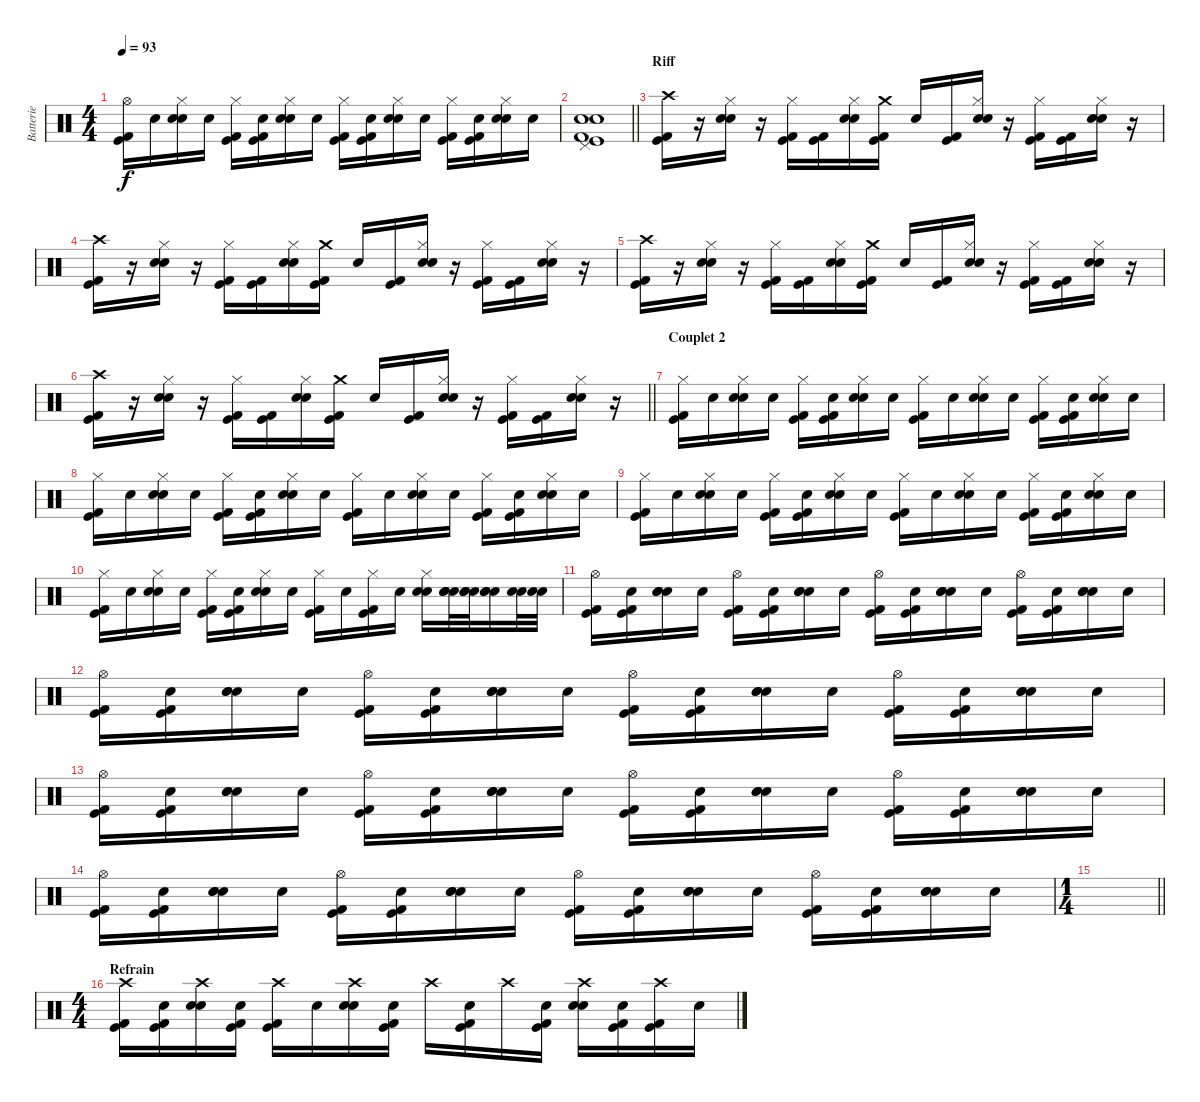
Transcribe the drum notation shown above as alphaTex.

\track ("Batterie" "Batterie") {instrument percussion}
\staff {score}
\articulation defaults
\ts (4 4)
\tempo 93
\clef neutral
\ks c
("Hi-Hat (open)" "Kick (hit)" "Kick (hit) 2").16{dy f} "Snare (hit)".16 ("Hi-Hat (closed)" "Electric Snare (hit)" "Snare (hit) 2").16 "Snare (hit)".16 ("Hi-Hat (closed)" "Kick (hit)" "Kick (hit) 2").16 ("Snare (hit)" "Kick (hit)" "Kick (hit) 2").16 ("Hi-Hat (closed)" "Electric Snare (hit)" "Snare (hit) 2").16 "Snare (hit)".16 ("Hi-Hat (closed)" "Kick (hit)" "Kick (hit) 2").16 ("Snare (hit)" "Kick (hit)" "Kick (hit) 2").16 ("Hi-Hat (closed)" "Electric Snare (hit)" "Snare (hit) 2").16 "Snare (hit)".16 ("Hi-Hat (closed)" "Kick (hit)" "Kick (hit) 2").16 ("Snare (hit)" "Kick (hit)" "Kick (hit) 2").16 ("Hi-Hat (closed)" "Electric Snare (hit)" "Snare (hit) 2").16 "Snare (hit)".16 |
\barLineRight lightlight
("Pedal Hi-Hat (hit)" "Kick (hit)" "Kick (hit) 2" "Electric Snare (hit)" "Snare (hit) 2").1 |
\section ("" "Riff")
("Crash high (hit)" "Kick (hit)" "Kick (hit) 2").16 r.16 ("Hi-Hat (closed)" "Electric Snare (hit)" "Snare (hit) 2").16 r.16 ("Hi-Hat (closed)" "Kick (hit)" "Kick (hit) 2").16 ("Kick (hit)" "Kick (hit) 2").16 ("Hi-Hat (closed)" "Electric Snare (hit)" "Snare (hit) 2").16 ("Crash medium (hit)" "Kick (hit)" "Kick (hit) 2").16 "Snare (hit)".16 ("Kick (hit)" "Kick (hit) 2").16 ("Hi-Hat (closed)" "Electric Snare (hit)" "Snare (hit) 2").16 r.16 ("Hi-Hat (closed)" "Kick (hit)" "Kick (hit) 2").16 ("Kick (hit)" "Kick (hit) 2").16 ("Hi-Hat (closed)" "Electric Snare (hit)" "Snare (hit) 2").16 r.16 |
("Crash high (hit)" "Kick (hit)" "Kick (hit) 2").16 r.16 ("Hi-Hat (closed)" "Electric Snare (hit)" "Snare (hit) 2").16 r.16 ("Hi-Hat (closed)" "Kick (hit)" "Kick (hit) 2").16 ("Kick (hit)" "Kick (hit) 2").16 ("Hi-Hat (closed)" "Electric Snare (hit)" "Snare (hit) 2").16 ("Crash medium (hit)" "Kick (hit)" "Kick (hit) 2").16 "Snare (hit)".16 ("Kick (hit)" "Kick (hit) 2").16 ("Hi-Hat (closed)" "Electric Snare (hit)" "Snare (hit) 2").16 r.16 ("Hi-Hat (closed)" "Kick (hit)" "Kick (hit) 2").16 ("Kick (hit)" "Kick (hit) 2").16 ("Hi-Hat (closed)" "Electric Snare (hit)" "Snare (hit) 2").16 r.16 |
("Crash high (hit)" "Kick (hit)" "Kick (hit) 2").16 r.16 ("Hi-Hat (closed)" "Electric Snare (hit)" "Snare (hit) 2").16 r.16 ("Hi-Hat (closed)" "Kick (hit)" "Kick (hit) 2").16 ("Kick (hit)" "Kick (hit) 2").16 ("Hi-Hat (closed)" "Electric Snare (hit)" "Snare (hit) 2").16 ("Crash medium (hit)" "Kick (hit)" "Kick (hit) 2").16 "Snare (hit)".16 ("Kick (hit)" "Kick (hit) 2").16 ("Hi-Hat (closed)" "Electric Snare (hit)" "Snare (hit) 2").16 r.16 ("Hi-Hat (closed)" "Kick (hit)" "Kick (hit) 2").16 ("Kick (hit)" "Kick (hit) 2").16 ("Hi-Hat (closed)" "Electric Snare (hit)" "Snare (hit) 2").16 r.16 |
\barLineRight lightlight
("Crash high (hit)" "Kick (hit)" "Kick (hit) 2").16 r.16 ("Hi-Hat (closed)" "Electric Snare (hit)" "Snare (hit) 2").16 r.16 ("Hi-Hat (closed)" "Kick (hit)" "Kick (hit) 2").16 ("Kick (hit)" "Kick (hit) 2").16 ("Hi-Hat (closed)" "Electric Snare (hit)" "Snare (hit) 2").16 ("Crash medium (hit)" "Kick (hit)" "Kick (hit) 2").16 "Snare (hit)".16 ("Kick (hit)" "Kick (hit) 2").16 ("Hi-Hat (closed)" "Electric Snare (hit)" "Snare (hit) 2").16 r.16 ("Hi-Hat (closed)" "Kick (hit)" "Kick (hit) 2").16 ("Kick (hit)" "Kick (hit) 2").16 ("Hi-Hat (closed)" "Electric Snare (hit)" "Snare (hit) 2").16 r.16 |
\section ("" "Couplet 2")
("Hi-Hat (closed)" "Kick (hit)" "Kick (hit) 2").16 "Snare (hit)".16 ("Hi-Hat (closed)" "Electric Snare (hit)" "Snare (hit) 2").16 "Snare (hit)".16 ("Hi-Hat (closed)" "Kick (hit)" "Kick (hit) 2").16 ("Snare (hit)" "Kick (hit)" "Kick (hit) 2").16 ("Hi-Hat (closed)" "Electric Snare (hit)" "Snare (hit) 2").16 "Snare (hit)".16 ("Hi-Hat (closed)" "Kick (hit)" "Kick (hit) 2").16 "Snare (hit)".16 ("Hi-Hat (closed)" "Electric Snare (hit)" "Snare (hit) 2").16 "Snare (hit)".16 ("Hi-Hat (closed)" "Kick (hit)" "Kick (hit) 2").16 ("Snare (hit)" "Kick (hit)" "Kick (hit) 2").16 ("Hi-Hat (closed)" "Electric Snare (hit)" "Snare (hit) 2").16 "Snare (hit)".16 |
("Hi-Hat (closed)" "Kick (hit)" "Kick (hit) 2").16 "Snare (hit)".16 ("Hi-Hat (closed)" "Electric Snare (hit)" "Snare (hit) 2").16 "Snare (hit)".16 ("Hi-Hat (closed)" "Kick (hit)" "Kick (hit) 2").16 ("Snare (hit)" "Kick (hit)" "Kick (hit) 2").16 ("Hi-Hat (closed)" "Electric Snare (hit)" "Snare (hit) 2").16 "Snare (hit)".16 ("Hi-Hat (closed)" "Kick (hit)" "Kick (hit) 2").16 "Snare (hit)".16 ("Hi-Hat (closed)" "Electric Snare (hit)" "Snare (hit) 2").16 "Snare (hit)".16 ("Hi-Hat (closed)" "Kick (hit)" "Kick (hit) 2").16 ("Snare (hit)" "Kick (hit)" "Kick (hit) 2").16 ("Hi-Hat (closed)" "Electric Snare (hit)" "Snare (hit) 2").16 "Snare (hit)".16 |
("Hi-Hat (closed)" "Kick (hit)" "Kick (hit) 2").16 "Snare (hit)".16 ("Hi-Hat (closed)" "Electric Snare (hit)" "Snare (hit) 2").16 "Snare (hit)".16 ("Hi-Hat (closed)" "Kick (hit)" "Kick (hit) 2").16 ("Snare (hit)" "Kick (hit)" "Kick (hit) 2").16 ("Hi-Hat (closed)" "Electric Snare (hit)" "Snare (hit) 2").16 "Snare (hit)".16 ("Hi-Hat (closed)" "Kick (hit)" "Kick (hit) 2").16 "Snare (hit)".16 ("Hi-Hat (closed)" "Electric Snare (hit)" "Snare (hit) 2").16 "Snare (hit)".16 ("Hi-Hat (closed)" "Kick (hit)" "Kick (hit) 2").16 ("Snare (hit)" "Kick (hit)" "Kick (hit) 2").16 ("Hi-Hat (closed)" "Electric Snare (hit)" "Snare (hit) 2").16 "Snare (hit)".16 |
("Hi-Hat (closed)" "Kick (hit)" "Kick (hit) 2").16 "Snare (hit)".16 ("Hi-Hat (closed)" "Electric Snare (hit)" "Snare (hit) 2").16 "Snare (hit)".16 ("Hi-Hat (closed)" "Kick (hit)" "Kick (hit) 2").16 ("Snare (hit)" "Kick (hit)" "Kick (hit) 2").16 ("Hi-Hat (closed)" "Electric Snare (hit)" "Snare (hit) 2").16 "Snare (hit)".16 ("Hi-Hat (closed)" "Kick (hit)" "Kick (hit) 2").16 "Snare (hit)".16 ("Hi-Hat (closed)" "Kick (hit)" "Kick (hit) 2").16 "Snare (hit)".16 ("Hi-Hat (closed)" "Electric Snare (hit)" "Snare (hit) 2").16 ("Snare (hit)" "Electric Snare (hit)" "Snare (hit) 2").32 ("Snare (hit)" "Electric Snare (hit)" "Snare (hit) 2").32 ("Snare (hit)" "Electric Snare (hit)" "Snare (hit) 2").16 ("Electric Snare (hit)" "Snare (hit) 2").32 ("Electric Snare (hit)" "Snare (hit) 2").32 |
("Hi-Hat (open)" "Kick (hit)" "Kick (hit) 2").16 ("Snare (hit)" "Kick (hit)" "Kick (hit) 2").16 ("Snare (hit)" "Electric Snare (hit)" "Snare (hit) 2").16 "Snare (hit)".16 ("Hi-Hat (open)" "Kick (hit)" "Kick (hit) 2").16 ("Snare (hit)" "Kick (hit)" "Kick (hit) 2").16 ("Snare (hit)" "Electric Snare (hit)" "Snare (hit) 2").16 "Snare (hit)".16 ("Hi-Hat (open)" "Kick (hit)" "Kick (hit) 2").16 ("Snare (hit)" "Kick (hit)" "Kick (hit) 2").16 ("Snare (hit)" "Electric Snare (hit)" "Snare (hit) 2").16 "Snare (hit)".16 ("Hi-Hat (open)" "Kick (hit)" "Kick (hit) 2").16 ("Snare (hit)" "Kick (hit)" "Kick (hit) 2").16 ("Snare (hit)" "Electric Snare (hit)" "Snare (hit) 2").16 "Snare (hit)".16 |
("Hi-Hat (open)" "Kick (hit)" "Kick (hit) 2").16 ("Snare (hit)" "Kick (hit)" "Kick (hit) 2").16 ("Snare (hit)" "Electric Snare (hit)" "Snare (hit) 2").16 "Snare (hit)".16 ("Hi-Hat (open)" "Kick (hit)" "Kick (hit) 2").16 ("Snare (hit)" "Kick (hit)" "Kick (hit) 2").16 ("Snare (hit)" "Electric Snare (hit)" "Snare (hit) 2").16 "Snare (hit)".16 ("Hi-Hat (open)" "Kick (hit)" "Kick (hit) 2").16 ("Snare (hit)" "Kick (hit)" "Kick (hit) 2").16 ("Snare (hit)" "Electric Snare (hit)" "Snare (hit) 2").16 "Snare (hit)".16 ("Hi-Hat (open)" "Kick (hit)" "Kick (hit) 2").16 ("Snare (hit)" "Kick (hit)" "Kick (hit) 2").16 ("Snare (hit)" "Electric Snare (hit)" "Snare (hit) 2").16 "Snare (hit)".16 |
("Hi-Hat (open)" "Kick (hit)" "Kick (hit) 2").16 ("Snare (hit)" "Kick (hit)" "Kick (hit) 2").16 ("Snare (hit)" "Electric Snare (hit)" "Snare (hit) 2").16 "Snare (hit)".16 ("Hi-Hat (open)" "Kick (hit)" "Kick (hit) 2").16 ("Snare (hit)" "Kick (hit)" "Kick (hit) 2").16 ("Snare (hit)" "Electric Snare (hit)" "Snare (hit) 2").16 "Snare (hit)".16 ("Hi-Hat (open)" "Kick (hit)" "Kick (hit) 2").16 ("Snare (hit)" "Kick (hit)" "Kick (hit) 2").16 ("Snare (hit)" "Electric Snare (hit)" "Snare (hit) 2").16 "Snare (hit)".16 ("Hi-Hat (open)" "Kick (hit)" "Kick (hit) 2").16 ("Snare (hit)" "Kick (hit)" "Kick (hit) 2").16 ("Snare (hit)" "Electric Snare (hit)" "Snare (hit) 2").16 "Snare (hit)".16 |
("Hi-Hat (open)" "Kick (hit)" "Kick (hit) 2").16 ("Snare (hit)" "Kick (hit)" "Kick (hit) 2").16 ("Snare (hit)" "Electric Snare (hit)" "Snare (hit) 2").16 "Snare (hit)".16 ("Hi-Hat (open)" "Kick (hit)" "Kick (hit) 2").16 ("Snare (hit)" "Kick (hit)" "Kick (hit) 2").16 ("Snare (hit)" "Electric Snare (hit)" "Snare (hit) 2").16 "Snare (hit)".16 ("Hi-Hat (open)" "Kick (hit)" "Kick (hit) 2").16 ("Snare (hit)" "Kick (hit)" "Kick (hit) 2").16 ("Snare (hit)" "Electric Snare (hit)" "Snare (hit) 2").16 "Snare (hit)".16 ("Hi-Hat (open)" "Kick (hit)" "Kick (hit) 2").16 ("Snare (hit)" "Kick (hit)" "Kick (hit) 2").16 ("Snare (hit)" "Electric Snare (hit)" "Snare (hit) 2").16 "Snare (hit)".16 |
\ts (1 4)
\barLineRight lightlight
|
\ts (4 4)
\section ("" "Refrain")
("Crash high (hit)" "Kick (hit)" "Kick (hit) 2").16 ("Snare (hit)" "Kick (hit)" "Kick (hit) 2").16 ("Crash high (hit)" "Electric Snare (hit)" "Snare (hit) 2").16 ("Snare (hit)" "Kick (hit)" "Kick (hit) 2").16 ("Crash high (hit)" "Kick (hit)" "Kick (hit) 2").16 "Snare (hit)".16 ("Crash high (hit)" "Electric Snare (hit)" "Snare (hit) 2").16 ("Snare (hit)" "Kick (hit)" "Kick (hit) 2").16 "Crash high (hit)".16 ("Snare (hit)" "Kick (hit)" "Kick (hit) 2").16 "Crash high (hit)".16 ("Snare (hit)" "Kick (hit)" "Kick (hit) 2").16 ("Crash high (hit)" "Electric Snare (hit)" "Snare (hit) 2").16 ("Snare (hit)" "Kick (hit)" "Kick (hit) 2").16 ("Crash high (hit)" "Kick (hit)" "Kick (hit) 2").16 "Snare (hit)".16
